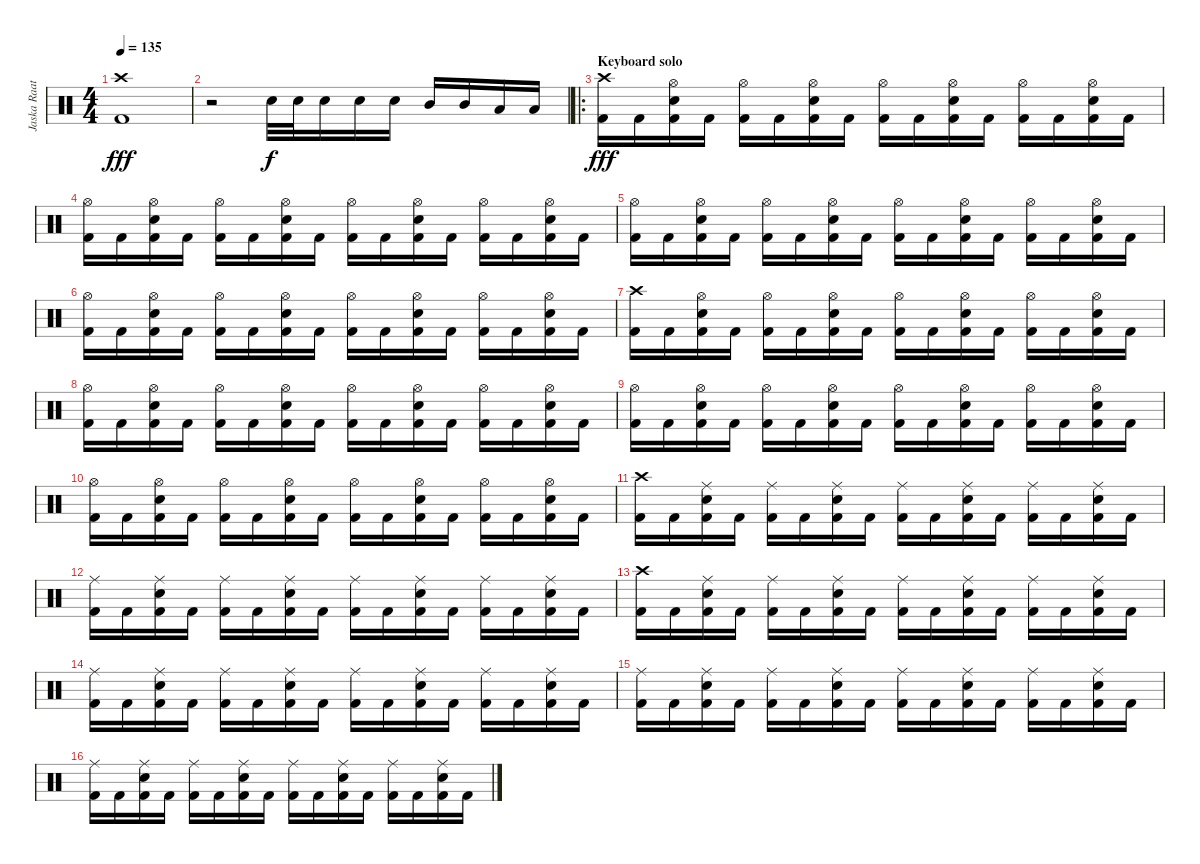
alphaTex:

\track ("Jaska Raatikainen" "Jaska Raat") {instrument percussion}
\staff {score}
\articulation defaults
\ts (4 4)
\tempo 135
\clef neutral
\ks c
("Crash high (hit)" "Kick (hit) 2").1{dy fff} |
r.2 "Electric Snare (hit)".32{dy f} "Electric Snare (hit)".32 "Electric Snare (hit)".16 "Electric Snare (hit)".16 "Electric Snare (hit)".16 "Mid Tom (hit)".16 "Mid Tom (hit)".16 "Low Tom (hit)".16 "Low Tom (hit)".16 |
\ro
\section ("" "Keyboard solo")
("Crash high (hit)" "Kick (hit) 2").16{dy fff} "Kick (hit) 2".16 ("Hi-Hat (open)" "Electric Snare (hit)" "Kick (hit) 2").16 "Kick (hit) 2".16 ("Hi-Hat (open)" "Kick (hit) 2").16 "Kick (hit) 2".16 ("Hi-Hat (open)" "Electric Snare (hit)" "Kick (hit) 2").16 "Kick (hit) 2".16 ("Hi-Hat (open)" "Kick (hit) 2").16 "Kick (hit) 2".16 ("Hi-Hat (open)" "Electric Snare (hit)" "Kick (hit) 2").16 "Kick (hit) 2".16 ("Hi-Hat (open)" "Kick (hit) 2").16 "Kick (hit) 2".16 ("Hi-Hat (open)" "Electric Snare (hit)" "Kick (hit) 2").16 "Kick (hit) 2".16 |
("Hi-Hat (open)" "Kick (hit) 2").16 "Kick (hit) 2".16 ("Hi-Hat (open)" "Electric Snare (hit)" "Kick (hit) 2").16 "Kick (hit) 2".16 ("Hi-Hat (open)" "Kick (hit) 2").16 "Kick (hit) 2".16 ("Hi-Hat (open)" "Electric Snare (hit)" "Kick (hit) 2").16 "Kick (hit) 2".16 ("Hi-Hat (open)" "Kick (hit) 2").16 "Kick (hit) 2".16 ("Hi-Hat (open)" "Electric Snare (hit)" "Kick (hit) 2").16 "Kick (hit) 2".16 ("Hi-Hat (open)" "Kick (hit) 2").16 "Kick (hit) 2".16 ("Hi-Hat (open)" "Electric Snare (hit)" "Kick (hit) 2").16 "Kick (hit) 2".16 |
("Hi-Hat (open)" "Kick (hit) 2").16 "Kick (hit) 2".16 ("Hi-Hat (open)" "Electric Snare (hit)" "Kick (hit) 2").16 "Kick (hit) 2".16 ("Hi-Hat (open)" "Kick (hit) 2").16 "Kick (hit) 2".16 ("Hi-Hat (open)" "Electric Snare (hit)" "Kick (hit) 2").16 "Kick (hit) 2".16 ("Hi-Hat (open)" "Kick (hit) 2").16 "Kick (hit) 2".16 ("Hi-Hat (open)" "Electric Snare (hit)" "Kick (hit) 2").16 "Kick (hit) 2".16 ("Hi-Hat (open)" "Kick (hit) 2").16 "Kick (hit) 2".16 ("Hi-Hat (open)" "Electric Snare (hit)" "Kick (hit) 2").16 "Kick (hit) 2".16 |
("Hi-Hat (open)" "Kick (hit) 2").16 "Kick (hit) 2".16 ("Hi-Hat (open)" "Electric Snare (hit)" "Kick (hit) 2").16 "Kick (hit) 2".16 ("Hi-Hat (open)" "Kick (hit) 2").16 "Kick (hit) 2".16 ("Hi-Hat (open)" "Electric Snare (hit)" "Kick (hit) 2").16 "Kick (hit) 2".16 ("Hi-Hat (open)" "Kick (hit) 2").16 "Kick (hit) 2".16 ("Hi-Hat (open)" "Electric Snare (hit)" "Kick (hit) 2").16 "Kick (hit) 2".16 ("Hi-Hat (open)" "Kick (hit) 2").16 "Kick (hit) 2".16 ("Hi-Hat (open)" "Electric Snare (hit)" "Kick (hit) 2").16 "Kick (hit) 2".16 |
("Crash high (hit)" "Kick (hit) 2").16 "Kick (hit) 2".16 ("Hi-Hat (open)" "Electric Snare (hit)" "Kick (hit) 2").16 "Kick (hit) 2".16 ("Hi-Hat (open)" "Kick (hit) 2").16 "Kick (hit) 2".16 ("Hi-Hat (open)" "Electric Snare (hit)" "Kick (hit) 2").16 "Kick (hit) 2".16 ("Hi-Hat (open)" "Kick (hit) 2").16 "Kick (hit) 2".16 ("Hi-Hat (open)" "Electric Snare (hit)" "Kick (hit) 2").16 "Kick (hit) 2".16 ("Hi-Hat (open)" "Kick (hit) 2").16 "Kick (hit) 2".16 ("Hi-Hat (open)" "Electric Snare (hit)" "Kick (hit) 2").16 "Kick (hit) 2".16 |
("Hi-Hat (open)" "Kick (hit) 2").16 "Kick (hit) 2".16 ("Hi-Hat (open)" "Electric Snare (hit)" "Kick (hit) 2").16 "Kick (hit) 2".16 ("Hi-Hat (open)" "Kick (hit) 2").16 "Kick (hit) 2".16 ("Hi-Hat (open)" "Electric Snare (hit)" "Kick (hit) 2").16 "Kick (hit) 2".16 ("Hi-Hat (open)" "Kick (hit) 2").16 "Kick (hit) 2".16 ("Hi-Hat (open)" "Electric Snare (hit)" "Kick (hit) 2").16 "Kick (hit) 2".16 ("Hi-Hat (open)" "Kick (hit) 2").16 "Kick (hit) 2".16 ("Hi-Hat (open)" "Electric Snare (hit)" "Kick (hit) 2").16 "Kick (hit) 2".16 |
("Hi-Hat (open)" "Kick (hit) 2").16 "Kick (hit) 2".16 ("Hi-Hat (open)" "Electric Snare (hit)" "Kick (hit) 2").16 "Kick (hit) 2".16 ("Hi-Hat (open)" "Kick (hit) 2").16 "Kick (hit) 2".16 ("Hi-Hat (open)" "Electric Snare (hit)" "Kick (hit) 2").16 "Kick (hit) 2".16 ("Hi-Hat (open)" "Kick (hit) 2").16 "Kick (hit) 2".16 ("Hi-Hat (open)" "Electric Snare (hit)" "Kick (hit) 2").16 "Kick (hit) 2".16 ("Hi-Hat (open)" "Kick (hit) 2").16 "Kick (hit) 2".16 ("Hi-Hat (open)" "Electric Snare (hit)" "Kick (hit) 2").16 "Kick (hit) 2".16 |
("Hi-Hat (open)" "Kick (hit) 2").16 "Kick (hit) 2".16 ("Hi-Hat (open)" "Electric Snare (hit)" "Kick (hit) 2").16 "Kick (hit) 2".16 ("Hi-Hat (open)" "Kick (hit) 2").16 "Kick (hit) 2".16 ("Hi-Hat (open)" "Electric Snare (hit)" "Kick (hit) 2").16 "Kick (hit) 2".16 ("Hi-Hat (open)" "Kick (hit) 2").16 "Kick (hit) 2".16 ("Hi-Hat (open)" "Electric Snare (hit)" "Kick (hit) 2").16 "Kick (hit) 2".16 ("Hi-Hat (open)" "Kick (hit) 2").16 "Kick (hit) 2".16 ("Hi-Hat (open)" "Electric Snare (hit)" "Kick (hit) 2").16 "Kick (hit) 2".16 |
("Crash high (hit)" "Kick (hit) 2").16 "Kick (hit) 2".16 ("Ride (middle)" "Electric Snare (hit)" "Kick (hit) 2").16 "Kick (hit) 2".16 ("Ride (middle)" "Kick (hit) 2").16 "Kick (hit) 2".16 ("Ride (middle)" "Electric Snare (hit)" "Kick (hit) 2").16 "Kick (hit) 2".16 ("Ride (middle)" "Kick (hit) 2").16 "Kick (hit) 2".16 ("Ride (middle)" "Electric Snare (hit)" "Kick (hit) 2").16 "Kick (hit) 2".16 ("Ride (middle)" "Kick (hit) 2").16 "Kick (hit) 2".16 ("Ride (middle)" "Electric Snare (hit)" "Kick (hit) 2").16 "Kick (hit) 2".16 |
("Ride (middle)" "Kick (hit) 2").16 "Kick (hit) 2".16 ("Ride (middle)" "Electric Snare (hit)" "Kick (hit) 2").16 "Kick (hit) 2".16 ("Ride (middle)" "Kick (hit) 2").16 "Kick (hit) 2".16 ("Ride (middle)" "Electric Snare (hit)" "Kick (hit) 2").16 "Kick (hit) 2".16 ("Ride (middle)" "Kick (hit) 2").16 "Kick (hit) 2".16 ("Ride (middle)" "Electric Snare (hit)" "Kick (hit) 2").16 "Kick (hit) 2".16 ("Ride (middle)" "Kick (hit) 2").16 "Kick (hit) 2".16 ("Ride (middle)" "Electric Snare (hit)" "Kick (hit) 2").16 "Kick (hit) 2".16 |
("Crash high (hit)" "Kick (hit) 2").16 "Kick (hit) 2".16 ("Ride (middle)" "Electric Snare (hit)" "Kick (hit) 2").16 "Kick (hit) 2".16 ("Ride (middle)" "Kick (hit) 2").16 "Kick (hit) 2".16 ("Ride (middle)" "Electric Snare (hit)" "Kick (hit) 2").16 "Kick (hit) 2".16 ("Ride (middle)" "Kick (hit) 2").16 "Kick (hit) 2".16 ("Ride (middle)" "Electric Snare (hit)" "Kick (hit) 2").16 "Kick (hit) 2".16 ("Ride (middle)" "Kick (hit) 2").16 "Kick (hit) 2".16 ("Ride (middle)" "Electric Snare (hit)" "Kick (hit) 2").16 "Kick (hit) 2".16 |
("Ride (middle)" "Kick (hit) 2").16 "Kick (hit) 2".16 ("Ride (middle)" "Electric Snare (hit)" "Kick (hit) 2").16 "Kick (hit) 2".16 ("Ride (middle)" "Kick (hit) 2").16 "Kick (hit) 2".16 ("Ride (middle)" "Electric Snare (hit)" "Kick (hit) 2").16 "Kick (hit) 2".16 ("Ride (middle)" "Kick (hit) 2").16 "Kick (hit) 2".16 ("Ride (middle)" "Electric Snare (hit)" "Kick (hit) 2").16 "Kick (hit) 2".16 ("Ride (middle)" "Kick (hit) 2").16 "Kick (hit) 2".16 ("Ride (middle)" "Electric Snare (hit)" "Kick (hit) 2").16 "Kick (hit) 2".16 |
("Ride (middle)" "Kick (hit) 2").16 "Kick (hit) 2".16 ("Ride (middle)" "Electric Snare (hit)" "Kick (hit) 2").16 "Kick (hit) 2".16 ("Ride (middle)" "Kick (hit) 2").16 "Kick (hit) 2".16 ("Ride (middle)" "Electric Snare (hit)" "Kick (hit) 2").16 "Kick (hit) 2".16 ("Ride (middle)" "Kick (hit) 2").16 "Kick (hit) 2".16 ("Ride (middle)" "Electric Snare (hit)" "Kick (hit) 2").16 "Kick (hit) 2".16 ("Ride (middle)" "Kick (hit) 2").16 "Kick (hit) 2".16 ("Ride (middle)" "Electric Snare (hit)" "Kick (hit) 2").16 "Kick (hit) 2".16 |
("Ride (middle)" "Kick (hit) 2").16 "Kick (hit) 2".16 ("Ride (middle)" "Electric Snare (hit)" "Kick (hit) 2").16 "Kick (hit) 2".16 ("Ride (middle)" "Kick (hit) 2").16 "Kick (hit) 2".16 ("Ride (middle)" "Electric Snare (hit)" "Kick (hit) 2").16 "Kick (hit) 2".16 ("Ride (middle)" "Kick (hit) 2").16 "Kick (hit) 2".16 ("Ride (middle)" "Electric Snare (hit)" "Kick (hit) 2").16 "Kick (hit) 2".16 ("Ride (middle)" "Kick (hit) 2").16 "Kick (hit) 2".16 ("Ride (middle)" "Electric Snare (hit)" "Kick (hit) 2").16 "Kick (hit) 2".16
